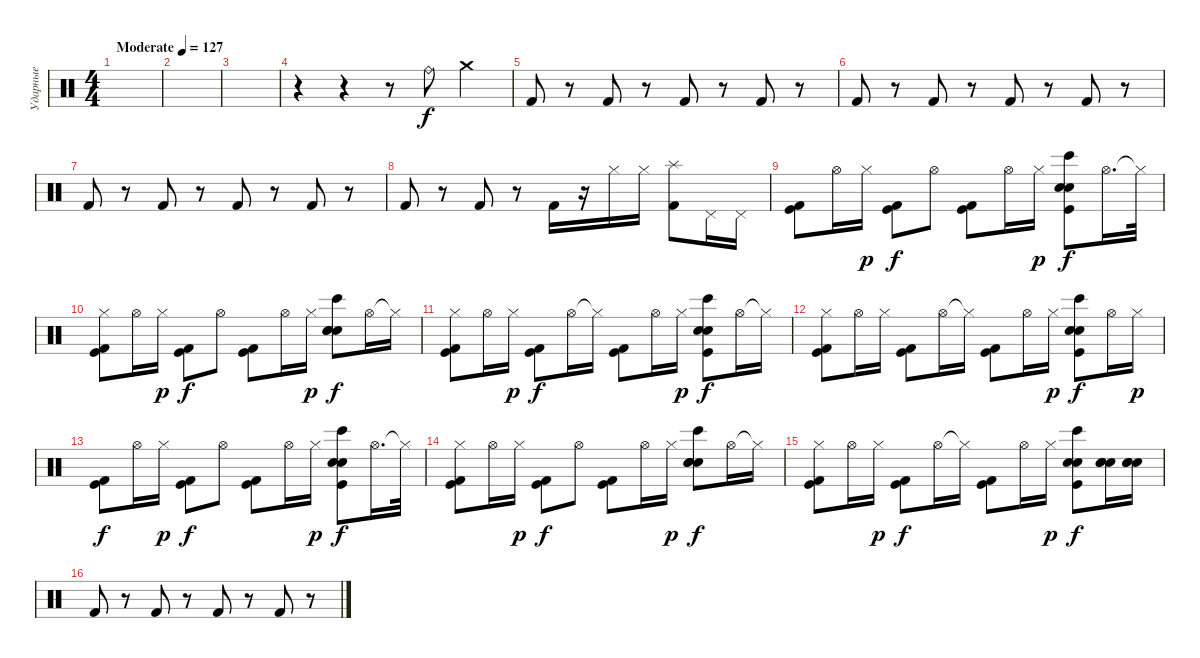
\track ("Ударные" "Ударные") {instrument percussion}
\staff {score}
\articulation defaults
\ts (4 4)
\tempo (127 "Moderate")
\clef neutral
\ks c
|
|
|
r.4 r.4 r.8 "Ride (bell)".8 "Crash medium (hit)".4 |
"Kick (hit) 2".8 r.8 "Kick (hit) 2".8 r.8 "Kick (hit) 2".8 r.8 "Kick (hit) 2".8 r.8 |
"Kick (hit) 2".8 r.8 "Kick (hit) 2".8 r.8 "Kick (hit) 2".8 r.8 "Kick (hit) 2".8 r.8 |
"Kick (hit) 2".8 r.8 "Kick (hit) 2".8 r.8 "Kick (hit) 2".8 r.8 "Kick (hit) 2".8 r.8 |
"Kick (hit) 2".8 r.8 "Kick (hit) 2".8 r.8 "Kick (hit) 2".16 r.16 "Hi-Hat (closed)".16 "Hi-Hat (closed)".16 ("Kick (hit) 2" "Splash (hit)").8 "Pedal Hi-Hat (hit)".16 "Pedal Hi-Hat (hit)".16 |
("Kick (hit) 2" "Kick (hit)").8 "Hi-Hat (open)".16 "Hi-Hat (closed)".16{dy p} ("Kick (hit) 2" "Kick (hit)").8{dy f} "Hi-Hat (open)".8 ("Kick (hit) 2" "Kick (hit)").8 "Hi-Hat (open)".16 "Hi-Hat (closed)".16{dy p} ("Hand Clap (hit)" "Kick (hit)" "Snare (hit) 2" "Bongo High (hit)").8{dy f} "Hi-Hat (open)".16{d} "Hi-Hat (closed)"{t}.32 |
("Kick (hit) 2" "Hi-Hat (closed)" "Kick (hit)").8 "Hi-Hat (open)".16 "Hi-Hat (closed)".16{dy p} ("Kick (hit) 2" "Kick (hit)").8{dy f} "Hi-Hat (open)".8 ("Kick (hit) 2" "Kick (hit)").8 "Hi-Hat (open)".16 "Hi-Hat (closed)".16{dy p} ("Hand Clap (hit)" "Hand Clap (hit)" "Snare (hit) 2" "Bongo High (hit)").8{dy f} "Hi-Hat (open)".16 "Hi-Hat (closed)"{t}.16 |
("Kick (hit) 2" "Kick (hit)" "Hi-Hat (closed)").8 "Hi-Hat (open)".16 "Hi-Hat (closed)".16{dy p} ("Kick (hit) 2" "Kick (hit)").8{dy f} "Hi-Hat (open)".16 "Hi-Hat (closed)"{t}.16 ("Kick (hit) 2" "Kick (hit)").8 "Hi-Hat (open)".16 "Hi-Hat (closed)".16{dy p} ("Hand Clap (hit)" "Kick (hit)" "Snare (hit) 2" "Bongo High (hit)").8{dy f} "Hi-Hat (open)".16 "Hi-Hat (closed)"{t}.16 |
("Kick (hit) 2" "Kick (hit)" "Hi-Hat (closed)").8 "Hi-Hat (open)".16 "Hi-Hat (closed)".16 ("Kick (hit) 2" "Kick (hit)").8 "Hi-Hat (open)".16 "Hi-Hat (closed)"{t}.16 ("Kick (hit) 2" "Kick (hit)").8 "Hi-Hat (open)".16 "Hi-Hat (closed)".16{dy p} ("Hand Clap (hit)" "Kick (hit)" "Snare (hit) 2" "Bongo High (hit)").8{dy f} "Hi-Hat (open)".16 "Hi-Hat (closed)".16{dy p} |
("Kick (hit) 2" "Kick (hit)").8{dy f} "Hi-Hat (open)".16 "Hi-Hat (closed)".16{dy p} ("Kick (hit) 2" "Kick (hit)").8{dy f} "Hi-Hat (open)".8 ("Kick (hit) 2" "Kick (hit)").8 "Hi-Hat (open)".16 "Hi-Hat (closed)".16{dy p} ("Hand Clap (hit)" "Kick (hit)" "Snare (hit) 2" "Bongo High (hit)").8{dy f} "Hi-Hat (open)".16{d} "Hi-Hat (closed)"{t}.32 |
("Kick (hit) 2" "Hi-Hat (closed)" "Kick (hit)").8 "Hi-Hat (open)".16 "Hi-Hat (closed)".16{dy p} ("Kick (hit) 2" "Kick (hit)").8{dy f} "Hi-Hat (open)".8 ("Kick (hit) 2" "Kick (hit)").8 "Hi-Hat (open)".16 "Hi-Hat (closed)".16{dy p} ("Hand Clap (hit)" "Hand Clap (hit)" "Snare (hit) 2" "Bongo High (hit)").8{dy f} "Hi-Hat (open)".16 "Hi-Hat (closed)"{t}.16 |
("Kick (hit) 2" "Kick (hit)" "Hi-Hat (closed)").8 "Hi-Hat (open)".16 "Hi-Hat (closed)".16{dy p} ("Kick (hit) 2" "Kick (hit)").8{dy f} "Hi-Hat (open)".16 "Hi-Hat (closed)"{t}.16 ("Kick (hit) 2" "Kick (hit)").8 "Hi-Hat (open)".16 "Hi-Hat (closed)".16{dy p} ("Hand Clap (hit)" "Kick (hit)" "Snare (hit) 2" "Bongo High (hit)").8{dy f} ("Hand Clap (hit)" "Hand Clap (hit)" "Snare (hit) 2").16 ("Hand Clap (hit)" "Hand Clap (hit)" "Snare (hit) 2").16 |
"Kick (hit) 2".8 r.8 "Kick (hit) 2".8 r.8 "Kick (hit) 2".8 r.8 "Kick (hit) 2".8 r.8
